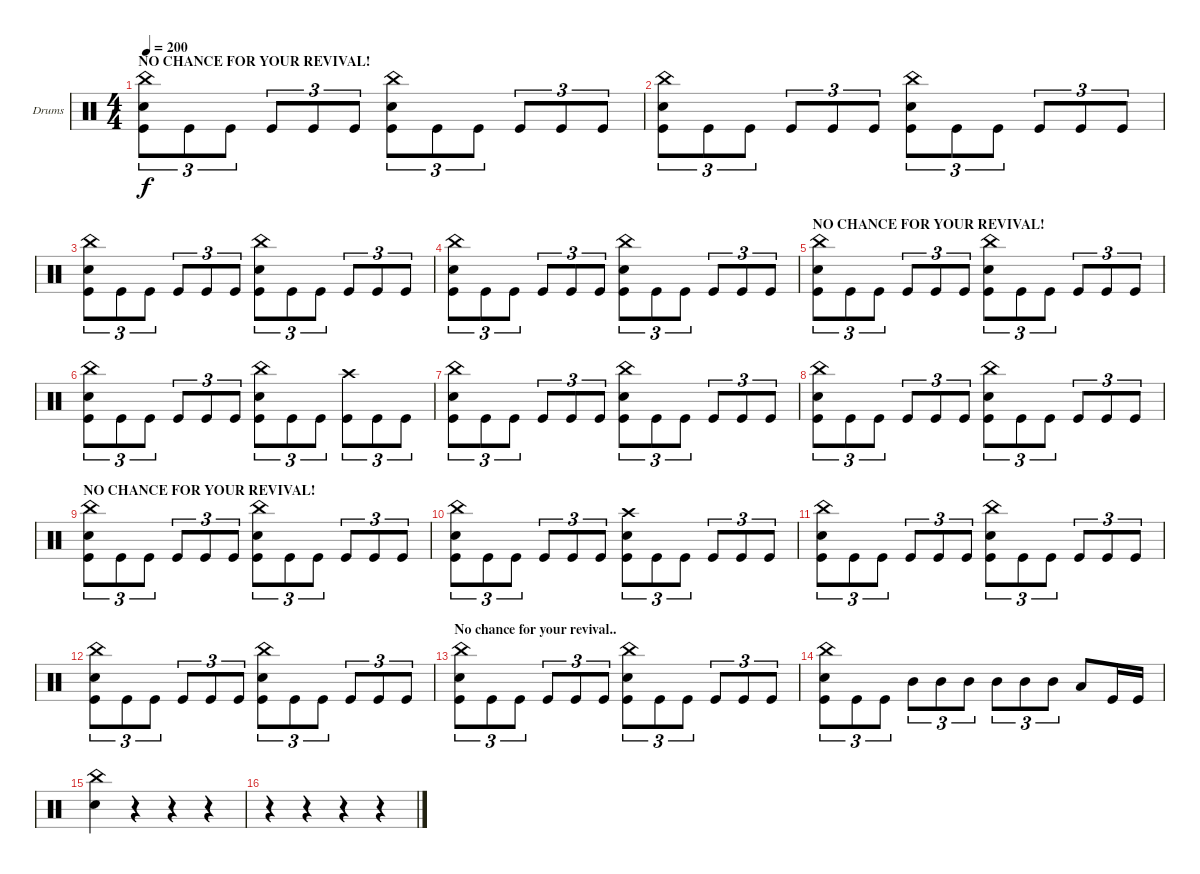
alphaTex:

\defaultSystemsLayout 4
\bracketExtendMode groupsimilarinstruments
\firstSystemTrackNameOrientation horizontal
\otherSystemsTrackNameOrientation horizontal
\track ("Markus Freiwald" "Drums") {instrument percussion}
\staff {score}
\articulation defaults
\ts (4 4)
\section ("" "NO CHANCE FOR YOUR REVIVAL!")
\tempo 200
\clef neutral
\ks c
("China (hit)" "Kick (hit)" "Snare (hit) 2").8{tu (3 2) dy f} "Kick (hit)".8{tu (3 2)} "Kick (hit)".8{tu (3 2)} "Kick (hit)".8{tu (3 2)} "Kick (hit)".8{tu (3 2)} "Kick (hit)".8{tu (3 2)} ("China (hit)" "Kick (hit)" "Snare (hit) 2").8{tu (3 2)} "Kick (hit)".8{tu (3 2)} "Kick (hit)".8{tu (3 2)} "Kick (hit)".8{tu (3 2)} "Kick (hit)".8{tu (3 2)} "Kick (hit)".8{tu (3 2)} |
("China (hit)" "Kick (hit)" "Snare (hit) 2").8{tu (3 2)} "Kick (hit)".8{tu (3 2)} "Kick (hit)".8{tu (3 2)} "Kick (hit)".8{tu (3 2)} "Kick (hit)".8{tu (3 2)} "Kick (hit)".8{tu (3 2)} ("China (hit)" "Kick (hit)" "Snare (hit) 2").8{tu (3 2)} "Kick (hit)".8{tu (3 2)} "Kick (hit)".8{tu (3 2)} "Kick (hit)".8{tu (3 2)} "Kick (hit)".8{tu (3 2)} "Kick (hit)".8{tu (3 2)} |
("China (hit)" "Kick (hit)" "Snare (hit) 2").8{tu (3 2)} "Kick (hit)".8{tu (3 2)} "Kick (hit)".8{tu (3 2)} "Kick (hit)".8{tu (3 2)} "Kick (hit)".8{tu (3 2)} "Kick (hit)".8{tu (3 2)} ("China (hit)" "Kick (hit)" "Snare (hit) 2").8{tu (3 2)} "Kick (hit)".8{tu (3 2)} "Kick (hit)".8{tu (3 2)} "Kick (hit)".8{tu (3 2)} "Kick (hit)".8{tu (3 2)} "Kick (hit)".8{tu (3 2)} |
("China (hit)" "Kick (hit)" "Snare (hit) 2").8{tu (3 2)} "Kick (hit)".8{tu (3 2)} "Kick (hit)".8{tu (3 2)} "Kick (hit)".8{tu (3 2)} "Kick (hit)".8{tu (3 2)} "Kick (hit)".8{tu (3 2)} ("China (hit)" "Kick (hit)" "Snare (hit) 2").8{tu (3 2)} "Kick (hit)".8{tu (3 2)} "Kick (hit)".8{tu (3 2)} "Kick (hit)".8{tu (3 2)} "Kick (hit)".8{tu (3 2)} "Kick (hit)".8{tu (3 2)} |
\section ("" "NO CHANCE FOR YOUR REVIVAL!")
("China (hit)" "Kick (hit)" "Snare (hit) 2").8{tu (3 2)} "Kick (hit)".8{tu (3 2)} "Kick (hit)".8{tu (3 2)} "Kick (hit)".8{tu (3 2)} "Kick (hit)".8{tu (3 2)} "Kick (hit)".8{tu (3 2)} ("China (hit)" "Kick (hit)" "Snare (hit) 2").8{tu (3 2)} "Kick (hit)".8{tu (3 2)} "Kick (hit)".8{tu (3 2)} "Kick (hit)".8{tu (3 2)} "Kick (hit)".8{tu (3 2)} "Kick (hit)".8{tu (3 2)} |
("China (hit)" "Kick (hit)" "Snare (hit) 2").8{tu (3 2)} "Kick (hit)".8{tu (3 2)} "Kick (hit)".8{tu (3 2)} "Kick (hit)".8{tu (3 2)} "Kick (hit)".8{tu (3 2)} "Kick (hit)".8{tu (3 2)} ("China (hit)" "Kick (hit)" "Snare (hit) 2").8{tu (3 2)} "Kick (hit)".8{tu (3 2)} "Kick (hit)".8{tu (3 2)} ("Kick (hit)" "Crash high (hit)").8{tu (3 2)} "Kick (hit)".8{tu (3 2)} "Kick (hit)".8{tu (3 2)} |
("China (hit)" "Kick (hit)" "Snare (hit) 2").8{tu (3 2)} "Kick (hit)".8{tu (3 2)} "Kick (hit)".8{tu (3 2)} "Kick (hit)".8{tu (3 2)} "Kick (hit)".8{tu (3 2)} "Kick (hit)".8{tu (3 2)} ("China (hit)" "Kick (hit)" "Snare (hit) 2").8{tu (3 2)} "Kick (hit)".8{tu (3 2)} "Kick (hit)".8{tu (3 2)} "Kick (hit)".8{tu (3 2)} "Kick (hit)".8{tu (3 2)} "Kick (hit)".8{tu (3 2)} |
("China (hit)" "Kick (hit)" "Snare (hit) 2").8{tu (3 2)} "Kick (hit)".8{tu (3 2)} "Kick (hit)".8{tu (3 2)} "Kick (hit)".8{tu (3 2)} "Kick (hit)".8{tu (3 2)} "Kick (hit)".8{tu (3 2)} ("China (hit)" "Kick (hit)" "Snare (hit) 2").8{tu (3 2)} "Kick (hit)".8{tu (3 2)} "Kick (hit)".8{tu (3 2)} "Kick (hit)".8{tu (3 2)} "Kick (hit)".8{tu (3 2)} "Kick (hit)".8{tu (3 2)} |
\section ("" "NO CHANCE FOR YOUR REVIVAL!")
("China (hit)" "Kick (hit)" "Snare (hit) 2").8{tu (3 2)} "Kick (hit)".8{tu (3 2)} "Kick (hit)".8{tu (3 2)} "Kick (hit)".8{tu (3 2)} "Kick (hit)".8{tu (3 2)} "Kick (hit)".8{tu (3 2)} ("China (hit)" "Kick (hit)" "Snare (hit) 2").8{tu (3 2)} "Kick (hit)".8{tu (3 2)} "Kick (hit)".8{tu (3 2)} "Kick (hit)".8{tu (3 2)} "Kick (hit)".8{tu (3 2)} "Kick (hit)".8{tu (3 2)} |
("China (hit)" "Kick (hit)" "Snare (hit) 2").8{tu (3 2)} "Kick (hit)".8{tu (3 2)} "Kick (hit)".8{tu (3 2)} "Kick (hit)".8{tu (3 2)} "Kick (hit)".8{tu (3 2)} "Kick (hit)".8{tu (3 2)} ("Kick (hit)" "Snare (hit) 2" "Crash high (hit)").8{tu (3 2)} "Kick (hit)".8{tu (3 2)} "Kick (hit)".8{tu (3 2)} "Kick (hit)".8{tu (3 2)} "Kick (hit)".8{tu (3 2)} "Kick (hit)".8{tu (3 2)} |
("China (hit)" "Kick (hit)" "Snare (hit) 2").8{tu (3 2)} "Kick (hit)".8{tu (3 2)} "Kick (hit)".8{tu (3 2)} "Kick (hit)".8{tu (3 2)} "Kick (hit)".8{tu (3 2)} "Kick (hit)".8{tu (3 2)} ("China (hit)" "Kick (hit)" "Snare (hit) 2").8{tu (3 2)} "Kick (hit)".8{tu (3 2)} "Kick (hit)".8{tu (3 2)} "Kick (hit)".8{tu (3 2)} "Kick (hit)".8{tu (3 2)} "Kick (hit)".8{tu (3 2)} |
("China (hit)" "Kick (hit)" "Snare (hit) 2").8{tu (3 2)} "Kick (hit)".8{tu (3 2)} "Kick (hit)".8{tu (3 2)} "Kick (hit)".8{tu (3 2)} "Kick (hit)".8{tu (3 2)} "Kick (hit)".8{tu (3 2)} ("China (hit)" "Kick (hit)" "Snare (hit) 2").8{tu (3 2)} "Kick (hit)".8{tu (3 2)} "Kick (hit)".8{tu (3 2)} "Kick (hit)".8{tu (3 2)} "Kick (hit)".8{tu (3 2)} "Kick (hit)".8{tu (3 2)} |
\section ("" "No chance for your revival..")
("China (hit)" "Kick (hit)" "Snare (hit) 2").8{tu (3 2)} "Kick (hit)".8{tu (3 2)} "Kick (hit)".8{tu (3 2)} "Kick (hit)".8{tu (3 2)} "Kick (hit)".8{tu (3 2)} "Kick (hit)".8{tu (3 2)} ("China (hit)" "Kick (hit)" "Snare (hit) 2").8{tu (3 2)} "Kick (hit)".8{tu (3 2)} "Kick (hit)".8{tu (3 2)} "Kick (hit)".8{tu (3 2)} "Kick (hit)".8{tu (3 2)} "Kick (hit)".8{tu (3 2)} |
("China (hit)" "Kick (hit)" "Snare (hit) 2").8{tu (3 2)} "Kick (hit)".8{tu (3 2)} "Kick (hit)".8{tu (3 2)} "Mid Tom (hit)".8{tu (3 2)} "Mid Tom (hit)".8{tu (3 2)} "Mid Tom (hit)".8{tu (3 2)} "Mid Tom (hit)".8{tu (3 2)} "Mid Tom (hit)".8{tu (3 2)} "Mid Tom (hit)".8{tu (3 2)} "Low Tom (hit)".8 "Kick (hit)".16 "Kick (hit)".16 |
("Snare (hit) 2" "China (hit)").4 r.4 r.4 r.4 |
r.4 r.4 r.4 r.4
